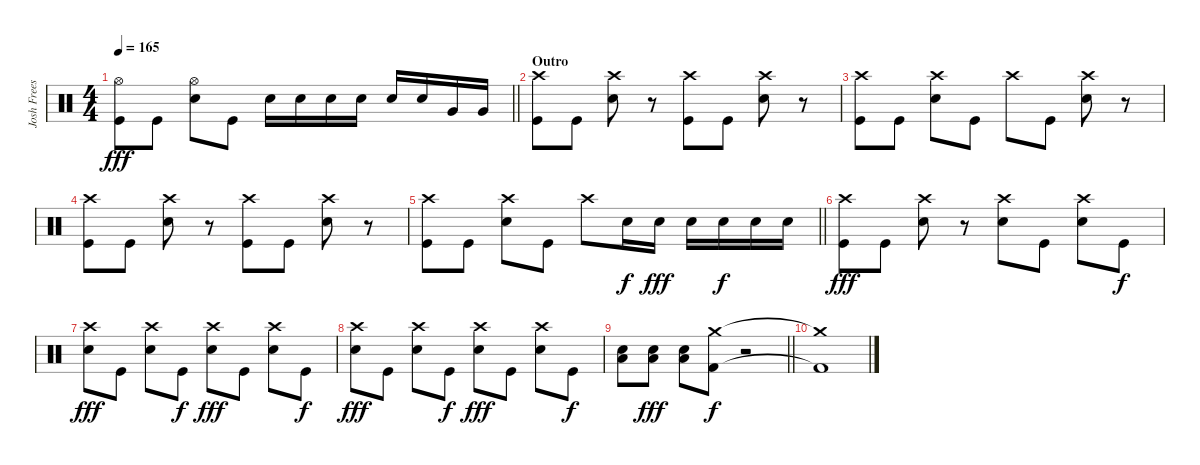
\track ("Josh Freese" "Josh Frees") {instrument percussion}
\staff {score}
\articulation defaults
\ts (4 4)
\tempo 165
\clef neutral
\barLineRight lightlight
\ks c
("Hi-Hat (open)" "Kick (hit)").8{dy fff} "Kick (hit)".8 ("Hi-Hat (open)" "Electric Snare (hit)").8 "Kick (hit)".8 "Electric Snare (hit)".16 "Electric Snare (hit)".16 "Electric Snare (hit)".16 "Electric Snare (hit)".16 "Electric Snare (hit)".16 "Electric Snare (hit)".16 "Very Low Tom (hit)".16 "Very Low Tom (hit)".16 |
\section ("" "Outro")
("Crash high (hit)" "Kick (hit)").8 "Kick (hit)".8 ("Crash high (hit)" "Electric Snare (hit)").8 r.8 ("Crash high (hit)" "Kick (hit)").8 "Kick (hit)".8 ("Crash high (hit)" "Electric Snare (hit)").8 r.8 |
("Crash high (hit)" "Kick (hit)").8 "Kick (hit)".8 ("Crash high (hit)" "Electric Snare (hit)").8 "Kick (hit)".8 "Crash high (hit)".8 "Kick (hit)".8 ("Crash high (hit)" "Electric Snare (hit)").8 r.8 |
("Crash high (hit)" "Kick (hit)").8 "Kick (hit)".8 ("Crash high (hit)" "Electric Snare (hit)").8 r.8 ("Crash high (hit)" "Kick (hit)").8 "Kick (hit)".8 ("Crash high (hit)" "Electric Snare (hit)").8 r.8 |
\barLineRight lightlight
("Crash high (hit)" "Kick (hit)").8 "Kick (hit)".8 ("Crash high (hit)" "Electric Snare (hit)").8 "Kick (hit)".8 "Crash high (hit)".8 "Electric Snare (hit)".16{dy f} "Electric Snare (hit)".16{dy fff} "Electric Snare (hit)".16 "Electric Snare (hit)".16{dy f} "Electric Snare (hit)".16 "Electric Snare (hit)".16 |
("Crash high (hit)" "Kick (hit)").8{dy fff} "Kick (hit)".8 ("Crash high (hit)" "Electric Snare (hit)").8 r.8 ("Crash high (hit)" "Electric Snare (hit)").8 "Kick (hit)".8 ("Crash high (hit)" "Electric Snare (hit)").8 "Kick (hit)".8{dy f} |
("Crash high (hit)" "Electric Snare (hit)").8{dy fff} "Kick (hit)".8 ("Crash high (hit)" "Electric Snare (hit)").8 "Kick (hit)".8{dy f} ("Crash high (hit)" "Electric Snare (hit)").8{dy fff} "Kick (hit)".8 ("Crash high (hit)" "Electric Snare (hit)").8 "Kick (hit)".8{dy f} |
("Crash high (hit)" "Electric Snare (hit)").8{dy fff} "Kick (hit)".8 ("Crash high (hit)" "Electric Snare (hit)").8 "Kick (hit)".8{dy f} ("Crash high (hit)" "Electric Snare (hit)").8{dy fff} "Kick (hit)".8 ("Crash high (hit)" "Electric Snare (hit)").8 "Kick (hit)".8{dy f} |
\barLineRight lightlight
("Low Floor Tom (hit)" "Electric Snare (hit)").8 ("Low Floor Tom (hit)" "Electric Snare (hit)").8{dy fff} ("Low Floor Tom (hit)" "Electric Snare (hit)").8 ("Crash medium (hit)" "Kick (hit) 2").8{dy f} r.2 |
("Crash medium (hit)"{t} "Kick (hit) 2"{t}).1
